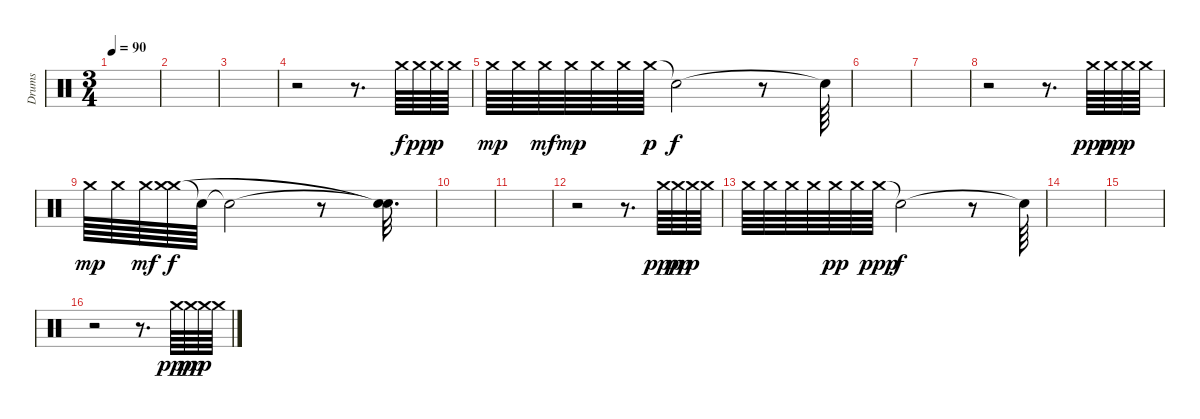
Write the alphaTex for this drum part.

\track ("Drums" "Drums") {instrument percussion}
\staff {score}
\articulation defaults
\ts (3 4)
\tempo 90
\clef neutral
\ks c
|
|
|
r.2 r.8{d} "Crash medium (hit)".64 "Crash medium (hit)".64{dy pp} "Crash medium (hit)".64{dy p} "Crash medium (hit)".64 |
"Crash medium (hit)".64{dy mp} "Crash medium (hit)".64 "Crash medium (hit)".64{dy mf} "Crash medium (hit)".64{dy mp} "Crash medium (hit)".64 "Crash medium (hit)".64 "Crash medium (hit)".64{dy p} "Snare (hit)"{t}.2{dy f} r.8 "Snare (hit)"{t}.64 |
|
|
r.2 r.8{d} "Crash medium (hit)".64{dy ppp} "Crash medium (hit)".64{dy pp} "Crash medium (hit)".64{dy p} "Crash medium (hit)".64 |
"Crash medium (hit)".64{dy mp} "Crash medium (hit)".64 "Crash medium (hit)".64{dy mf} ("Crash medium (hit)" "Crash medium (hit)").64{dy f} "Snare (hit)"{t}.64 "Snare (hit)"{t}.2 r.8 ("Snare (hit)"{t} "Snare (hit)"{t}).32{d} |
|
|
r.2 r.8{d} "Crash medium (hit)".64{dy ppp} "Crash medium (hit)".64{dy pp} "Crash medium (hit)".64{dy p} "Crash medium (hit)".64 |
"Crash medium (hit)".64 "Crash medium (hit)".64 "Crash medium (hit)".64 "Crash medium (hit)".64 "Crash medium (hit)".64{dy pp} "Crash medium (hit)".64 "Crash medium (hit)".64{dy ppp} "Snare (hit)"{t}.2{dy f} r.8 "Snare (hit)"{t}.64 |
|
|
r.2 r.8{d} "Crash medium (hit)".64{dy ppp} "Crash medium (hit)".64{dy pp} "Crash medium (hit)".64{dy p} "Crash medium (hit)".64
